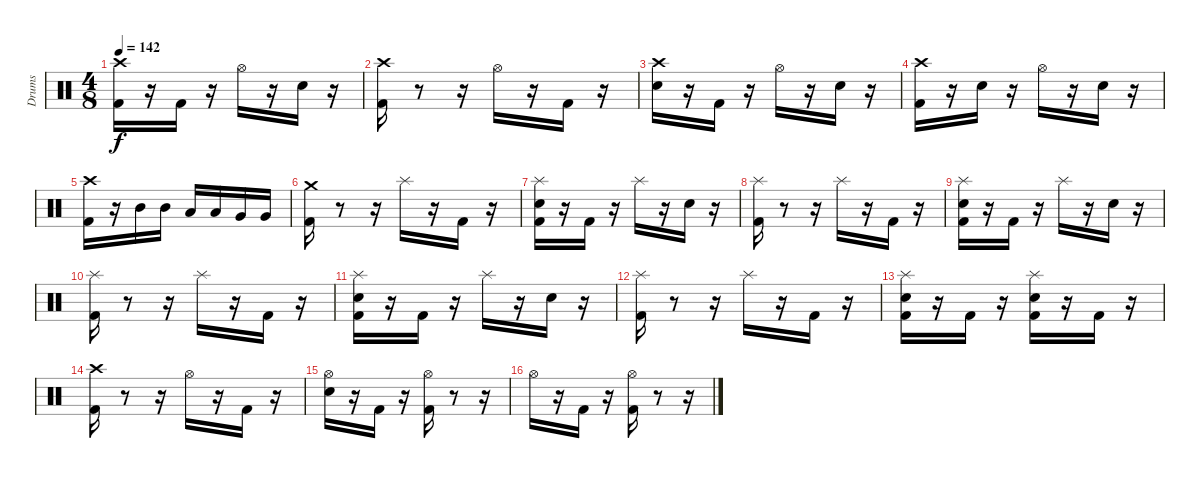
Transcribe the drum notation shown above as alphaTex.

\track ("Drums" "Drums") {instrument percussion}
\staff {score}
\articulation defaults
\ts (4 8)
\tempo 142
\clef neutral
\ks c
("Crash high (hit)" "Kick (hit) 2").16{dy f} r.16 "Kick (hit) 2".16 r.16 "Hi-Hat (open)".16 r.16 "Electric Snare (hit)".16 r.16 |
("Crash high (hit)" "Kick (hit) 2").16 r.8 r.16 "Hi-Hat (open)".16 r.16 "Kick (hit) 2".16 r.16 |
("Crash high (hit)" "Electric Snare (hit)").16 r.16 "Kick (hit) 2".16 r.16 "Hi-Hat (open)".16 r.16 "Electric Snare (hit)".16 r.16 |
("Kick (hit) 2" "Crash high (hit)").16 r.16 "Electric Snare (hit)".16 r.16 "Hi-Hat (open)".16 r.16 "Electric Snare (hit)".16 r.16 |
("Crash high (hit)" "Kick (hit) 2").16 r.16 "Mid Tom (hit)".16 "Mid Tom (hit)".16 "Low Tom (hit)".16 "Low Tom (hit)".16 "Very Low Tom (hit)".16 "Very Low Tom (hit)".16 |
("Kick (hit) 2" "Crash medium (hit)").16 r.8 r.16 "Splash (hit)".16 r.16 "Kick (hit) 2".16 r.16 |
("Electric Snare (hit)" "Kick (hit) 2" "Splash (hit)").16 r.16 "Kick (hit) 2".16 r.16 "Splash (hit)".16 r.16 "Electric Snare (hit)".16 r.16 |
("Kick (hit) 2" "Splash (hit)").16 r.8 r.16 "Splash (hit)".16 r.16 "Kick (hit) 2".16 r.16 |
("Electric Snare (hit)" "Kick (hit) 2" "Splash (hit)").16 r.16 "Kick (hit) 2".16 r.16 "Splash (hit)".16 r.16 "Electric Snare (hit)".16 r.16 |
("Kick (hit) 2" "Splash (hit)").16 r.8 r.16 "Splash (hit)".16 r.16 "Kick (hit) 2".16 r.16 |
("Electric Snare (hit)" "Kick (hit) 2" "Splash (hit)").16 r.16 "Kick (hit) 2".16 r.16 "Splash (hit)".16 r.16 "Electric Snare (hit)".16 r.16 |
("Kick (hit) 2" "Splash (hit)").16 r.8 r.16 "Splash (hit)".16 r.16 "Kick (hit) 2".16 r.16 |
("Electric Snare (hit)" "Kick (hit) 2" "Splash (hit)").16 r.16 "Kick (hit) 2".16 r.16 ("Splash (hit)" "Electric Snare (hit)" "Kick (hit) 2").16 r.16 "Kick (hit) 2".16 r.16 |
("Crash high (hit)" "Kick (hit) 2").16 r.8 r.16 "Hi-Hat (open)".16 r.16 "Kick (hit) 2".16 r.16 |
("Electric Snare (hit)" "Hi-Hat (open)").16 r.16 "Kick (hit) 2".16 r.16 ("Hi-Hat (open)" "Kick (hit) 2").16 r.8 r.16 |
"Hi-Hat (open)".16 r.16 "Kick (hit) 2".16 r.16 ("Hi-Hat (open)" "Kick (hit) 2").16 r.8 r.16
